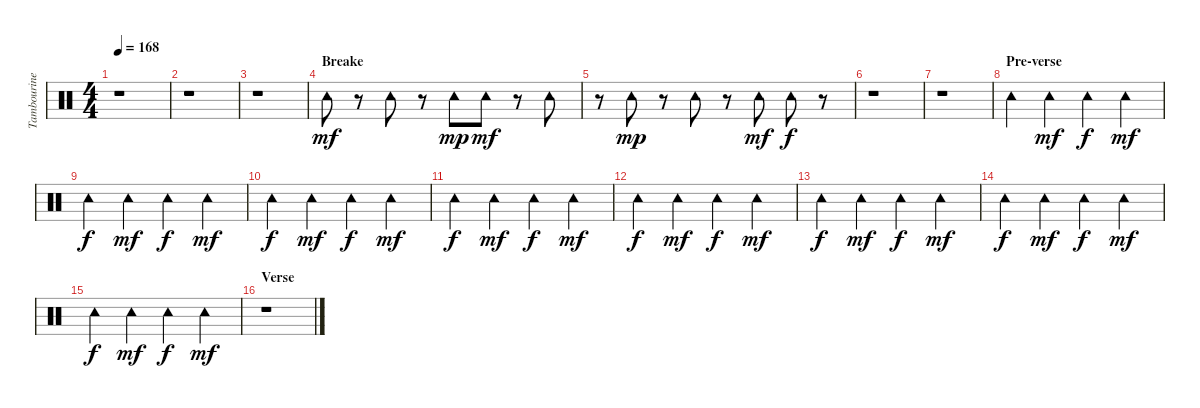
\track ("Tambourine" "Tambourine") {instrument percussion}
\staff {score}
\articulation defaults
\ts (4 4)
\tempo 168
\clef neutral
\ks c
r.1{dy mf} |
r.1 |
r.1 |
\section ("" "Breake")
"Tambourine (hit)".8 r.8 "Tambourine (hit)".8 r.8 "Tambourine (hit)".8{dy mp} "Tambourine (hit)".8{dy mf} r.8 "Tambourine (hit)".8 |
r.8 "Tambourine (hit)".8{dy mp} r.8 "Tambourine (hit)".8 r.8 "Tambourine (hit)".8{dy mf} "Tambourine (hit)".8{dy f} r.8 |
r.1 |
r.1 |
\section ("" "Pre-verse")
"Tambourine (hit)".4 "Tambourine (hit)".4{dy mf} "Tambourine (hit)".4{dy f} "Tambourine (hit)".4{dy mf} |
"Tambourine (hit)".4{dy f} "Tambourine (hit)".4{dy mf} "Tambourine (hit)".4{dy f} "Tambourine (hit)".4{dy mf} |
"Tambourine (hit)".4{dy f} "Tambourine (hit)".4{dy mf} "Tambourine (hit)".4{dy f} "Tambourine (hit)".4{dy mf} |
"Tambourine (hit)".4{dy f} "Tambourine (hit)".4{dy mf} "Tambourine (hit)".4{dy f} "Tambourine (hit)".4{dy mf} |
"Tambourine (hit)".4{dy f} "Tambourine (hit)".4{dy mf} "Tambourine (hit)".4{dy f} "Tambourine (hit)".4{dy mf} |
"Tambourine (hit)".4{dy f} "Tambourine (hit)".4{dy mf} "Tambourine (hit)".4{dy f} "Tambourine (hit)".4{dy mf} |
"Tambourine (hit)".4{dy f} "Tambourine (hit)".4{dy mf} "Tambourine (hit)".4{dy f} "Tambourine (hit)".4{dy mf} |
"Tambourine (hit)".4{dy f} "Tambourine (hit)".4{dy mf} "Tambourine (hit)".4{dy f} "Tambourine (hit)".4{dy mf} |
\section ("" "Verse")
r.1
